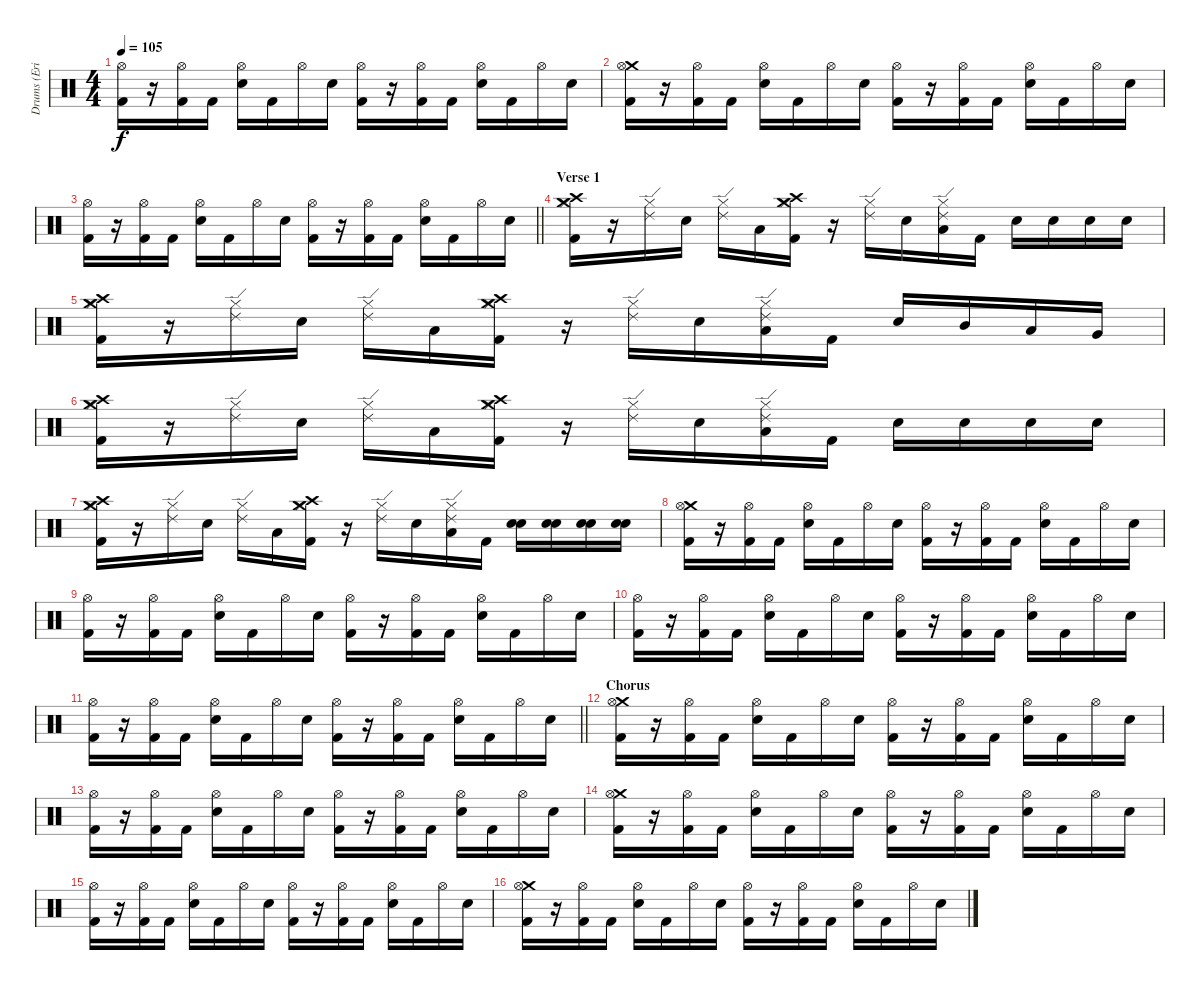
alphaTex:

\track ("Drums (Eric Kretz)" "Drums (Eri") {instrument percussion}
\staff {score}
\articulation defaults
\ts (4 4)
\tempo 105
\clef neutral
\ks c
("Hi-Hat (open)" "Kick (hit) 2").16{dy f} r.16 ("Hi-Hat (open)" "Kick (hit) 2").16 "Kick (hit) 2".16 ("Hi-Hat (open)" "Electric Snare (hit)").16 "Kick (hit) 2".16 "Hi-Hat (open)".16 "Electric Snare (hit)".16 ("Hi-Hat (open)" "Kick (hit) 2").16 r.16 ("Hi-Hat (open)" "Kick (hit) 2").16 "Kick (hit) 2".16 ("Hi-Hat (open)" "Electric Snare (hit)").16 "Kick (hit) 2".16 "Hi-Hat (open)".16 "Electric Snare (hit)".16 |
("Crash medium (hit)" "Hi-Hat (open)" "Kick (hit) 2").16 r.16 ("Hi-Hat (open)" "Kick (hit) 2").16 "Kick (hit) 2".16 ("Hi-Hat (open)" "Electric Snare (hit)").16 "Kick (hit) 2".16 "Hi-Hat (open)".16 "Electric Snare (hit)".16 ("Hi-Hat (open)" "Kick (hit) 2").16 r.16 ("Hi-Hat (open)" "Kick (hit) 2").16 "Kick (hit) 2".16 ("Hi-Hat (open)" "Electric Snare (hit)").16 "Kick (hit) 2".16 "Hi-Hat (open)".16 "Electric Snare (hit)".16 |
\barLineRight lightlight
("Hi-Hat (open)" "Kick (hit) 2").16 r.16 ("Hi-Hat (open)" "Kick (hit) 2").16 "Kick (hit) 2".16 ("Hi-Hat (open)" "Electric Snare (hit)").16 "Kick (hit) 2".16 "Hi-Hat (open)".16 "Electric Snare (hit)".16 ("Hi-Hat (open)" "Kick (hit) 2").16 r.16 ("Hi-Hat (open)" "Kick (hit) 2").16 "Kick (hit) 2".16 ("Hi-Hat (open)" "Electric Snare (hit)").16 "Kick (hit) 2".16 "Hi-Hat (open)".16 "Electric Snare (hit)".16 |
\section ("" "Verse 1")
("Crash medium (hit)" "Crash high (hit)" "Hi-Hat (closed)" "Kick (hit) 2").16 r.16 ("Ride (edge) 2" "Hi-Hat (closed)").16 "Electric Snare (hit)".16 ("Ride (edge) 2" "Hi-Hat (closed)").16 "Low Tom (hit)".16 ("Crash medium (hit)" "Crash high (hit)" "Hi-Hat (closed)" "Kick (hit) 2").16 r.16 ("Ride (edge) 2" "Hi-Hat (closed)").16 "Electric Snare (hit)".16 ("Ride (edge) 2" "Hi-Hat (closed)" "Low Tom (hit)").16 "Kick (hit) 2".16 "Electric Snare (hit)".16 "Electric Snare (hit)".16 "Electric Snare (hit)".16 "Electric Snare (hit)".16 |
("Crash medium (hit)" "Crash high (hit)" "Hi-Hat (closed)" "Kick (hit) 2").16 r.16 ("Ride (edge) 2" "Hi-Hat (closed)").16 "Electric Snare (hit)".16 ("Ride (edge) 2" "Hi-Hat (closed)").16 "Low Tom (hit)".16 ("Crash medium (hit)" "Crash high (hit)" "Hi-Hat (closed)" "Kick (hit) 2").16 r.16 ("Ride (edge) 2" "Hi-Hat (closed)").16 "Electric Snare (hit)".16 ("Ride (edge) 2" "Hi-Hat (closed)" "Low Tom (hit)").16 "Kick (hit) 2".16 "Electric Snare (hit)".16 "Mid Tom (hit)".16 "Low Tom (hit)".16 "Very Low Tom (hit)".16 |
("Crash medium (hit)" "Crash high (hit)" "Hi-Hat (closed)" "Kick (hit) 2").16 r.16 ("Ride (edge) 2" "Hi-Hat (closed)").16 "Electric Snare (hit)".16 ("Ride (edge) 2" "Hi-Hat (closed)").16 "Low Tom (hit)".16 ("Crash medium (hit)" "Crash high (hit)" "Hi-Hat (closed)" "Kick (hit) 2").16 r.16 ("Ride (edge) 2" "Hi-Hat (closed)").16 "Electric Snare (hit)".16 ("Ride (edge) 2" "Hi-Hat (closed)" "Low Tom (hit)").16 "Kick (hit) 2".16 "Electric Snare (hit)".16 "Electric Snare (hit)".16 "Electric Snare (hit)".16 "Electric Snare (hit)".16 |
("Crash medium (hit)" "Crash high (hit)" "Hi-Hat (closed)" "Kick (hit) 2").16 r.16 ("Ride (edge) 2" "Hi-Hat (closed)").16 "Electric Snare (hit)".16 ("Ride (edge) 2" "Hi-Hat (closed)").16 "Low Tom (hit)".16 ("Crash medium (hit)" "Crash high (hit)" "Hi-Hat (closed)" "Kick (hit) 2").16 r.16 ("Ride (edge) 2" "Hi-Hat (closed)").16 "Electric Snare (hit)".16 ("Ride (edge) 2" "Hi-Hat (closed)" "Low Tom (hit)").16 "Kick (hit) 2".16 ("Snare (hit) 2" "Electric Snare (hit)").16 ("Snare (hit) 2" "Electric Snare (hit)").16 ("Snare (hit) 2" "Electric Snare (hit)").16 ("Snare (hit) 2" "Electric Snare (hit)").16 |
("Crash medium (hit)" "Hi-Hat (open)" "Kick (hit) 2").16 r.16 ("Hi-Hat (open)" "Kick (hit) 2").16 "Kick (hit) 2".16 ("Hi-Hat (open)" "Electric Snare (hit)").16 "Kick (hit) 2".16 "Hi-Hat (open)".16 "Electric Snare (hit)".16 ("Hi-Hat (open)" "Kick (hit) 2").16 r.16 ("Hi-Hat (open)" "Kick (hit) 2").16 "Kick (hit) 2".16 ("Hi-Hat (open)" "Electric Snare (hit)").16 "Kick (hit) 2".16 "Hi-Hat (open)".16 "Electric Snare (hit)".16 |
("Hi-Hat (open)" "Kick (hit) 2").16 r.16 ("Hi-Hat (open)" "Kick (hit) 2").16 "Kick (hit) 2".16 ("Hi-Hat (open)" "Electric Snare (hit)").16 "Kick (hit) 2".16 "Hi-Hat (open)".16 "Electric Snare (hit)".16 ("Hi-Hat (open)" "Kick (hit) 2").16 r.16 ("Hi-Hat (open)" "Kick (hit) 2").16 "Kick (hit) 2".16 ("Hi-Hat (open)" "Electric Snare (hit)").16 "Kick (hit) 2".16 "Hi-Hat (open)".16 "Electric Snare (hit)".16 |
("Hi-Hat (open)" "Kick (hit) 2").16 r.16 ("Hi-Hat (open)" "Kick (hit) 2").16 "Kick (hit) 2".16 ("Hi-Hat (open)" "Electric Snare (hit)").16 "Kick (hit) 2".16 "Hi-Hat (open)".16 "Electric Snare (hit)".16 ("Hi-Hat (open)" "Kick (hit) 2").16 r.16 ("Hi-Hat (open)" "Kick (hit) 2").16 "Kick (hit) 2".16 ("Hi-Hat (open)" "Electric Snare (hit)").16 "Kick (hit) 2".16 "Hi-Hat (open)".16 "Electric Snare (hit)".16 |
\barLineRight lightlight
("Hi-Hat (open)" "Kick (hit) 2").16 r.16 ("Hi-Hat (open)" "Kick (hit) 2").16 "Kick (hit) 2".16 ("Hi-Hat (open)" "Electric Snare (hit)").16 "Kick (hit) 2".16 "Hi-Hat (open)".16 "Electric Snare (hit)".16 ("Hi-Hat (open)" "Kick (hit) 2").16 r.16 ("Hi-Hat (open)" "Kick (hit) 2").16 "Kick (hit) 2".16 ("Hi-Hat (open)" "Electric Snare (hit)").16 "Kick (hit) 2".16 "Hi-Hat (open)".16 "Electric Snare (hit)".16 |
\section ("" "Chorus")
("Crash medium (hit)" "Hi-Hat (open)" "Kick (hit) 2").16 r.16 ("Hi-Hat (open)" "Kick (hit) 2").16 "Kick (hit) 2".16 ("Hi-Hat (open)" "Electric Snare (hit)").16 "Kick (hit) 2".16 "Hi-Hat (open)".16 "Electric Snare (hit)".16 ("Hi-Hat (open)" "Kick (hit) 2").16 r.16 ("Hi-Hat (open)" "Kick (hit) 2").16 "Kick (hit) 2".16 ("Hi-Hat (open)" "Electric Snare (hit)").16 "Kick (hit) 2".16 "Hi-Hat (open)".16 "Electric Snare (hit)".16 |
("Hi-Hat (open)" "Kick (hit) 2").16 r.16 ("Hi-Hat (open)" "Kick (hit) 2").16 "Kick (hit) 2".16 ("Hi-Hat (open)" "Electric Snare (hit)").16 "Kick (hit) 2".16 "Hi-Hat (open)".16 "Electric Snare (hit)".16 ("Hi-Hat (open)" "Kick (hit) 2").16 r.16 ("Hi-Hat (open)" "Kick (hit) 2").16 "Kick (hit) 2".16 ("Hi-Hat (open)" "Electric Snare (hit)").16 "Kick (hit) 2".16 "Hi-Hat (open)".16 "Electric Snare (hit)".16 |
("Crash medium (hit)" "Hi-Hat (open)" "Kick (hit) 2").16 r.16 ("Hi-Hat (open)" "Kick (hit) 2").16 "Kick (hit) 2".16 ("Hi-Hat (open)" "Electric Snare (hit)").16 "Kick (hit) 2".16 "Hi-Hat (open)".16 "Electric Snare (hit)".16 ("Hi-Hat (open)" "Kick (hit) 2").16 r.16 ("Hi-Hat (open)" "Kick (hit) 2").16 "Kick (hit) 2".16 ("Hi-Hat (open)" "Electric Snare (hit)").16 "Kick (hit) 2".16 "Hi-Hat (open)".16 "Electric Snare (hit)".16 |
("Hi-Hat (open)" "Kick (hit) 2").16 r.16 ("Hi-Hat (open)" "Kick (hit) 2").16 "Kick (hit) 2".16 ("Hi-Hat (open)" "Electric Snare (hit)").16 "Kick (hit) 2".16 "Hi-Hat (open)".16 "Electric Snare (hit)".16 ("Hi-Hat (open)" "Kick (hit) 2").16 r.16 ("Hi-Hat (open)" "Kick (hit) 2").16 "Kick (hit) 2".16 ("Hi-Hat (open)" "Electric Snare (hit)").16 "Kick (hit) 2".16 "Hi-Hat (open)".16 "Electric Snare (hit)".16 |
("Crash medium (hit)" "Hi-Hat (open)" "Kick (hit) 2").16 r.16 ("Hi-Hat (open)" "Kick (hit) 2").16 "Kick (hit) 2".16 ("Hi-Hat (open)" "Electric Snare (hit)").16 "Kick (hit) 2".16 "Hi-Hat (open)".16 "Electric Snare (hit)".16 ("Hi-Hat (open)" "Kick (hit) 2").16 r.16 ("Hi-Hat (open)" "Kick (hit) 2").16 "Kick (hit) 2".16 ("Hi-Hat (open)" "Electric Snare (hit)").16 "Kick (hit) 2".16 "Hi-Hat (open)".16 "Electric Snare (hit)".16
